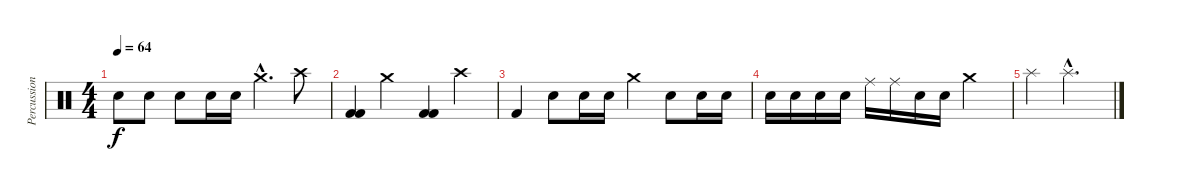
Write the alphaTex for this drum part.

\track ("Percussion" "Percussion") {instrument percussion}
\staff {score}
\articulation defaults
\ts (4 4)
\tempo 64
\clef neutral
\ks c "Electric Snare (hit)".8{dy f} "Electric Snare (hit)".8 "Electric Snare (hit)".8 "Electric Snare (hit)".16 "Electric Snare (hit)".16 "Crash medium (hit)"{hac}.4{d} "Crash high (hit)".8
|
("Kick (hit) 2" "Kick (hit) 2").4 "Crash medium (hit)".4 ("Kick (hit) 2" "Kick (hit) 2").4 "Crash high (hit)".4 |
"Kick (hit) 2".4 "Electric Snare (hit)".8 "Electric Snare (hit)".16 "Electric Snare (hit)".16 "Crash medium (hit)".4 "Electric Snare (hit)".8 "Electric Snare (hit)".16 "Electric Snare (hit)".16 |
"Electric Snare (hit)".16 "Electric Snare (hit)".16 "Electric Snare (hit)".16 "Electric Snare (hit)".16 "Ride (middle)".16 "Ride (middle)".16 "Electric Snare (hit)".16 "Electric Snare (hit)".16 "Crash medium (hit)".2 |
"Splash (hit)".4 "Splash (hit)"{hac}.2{d}
